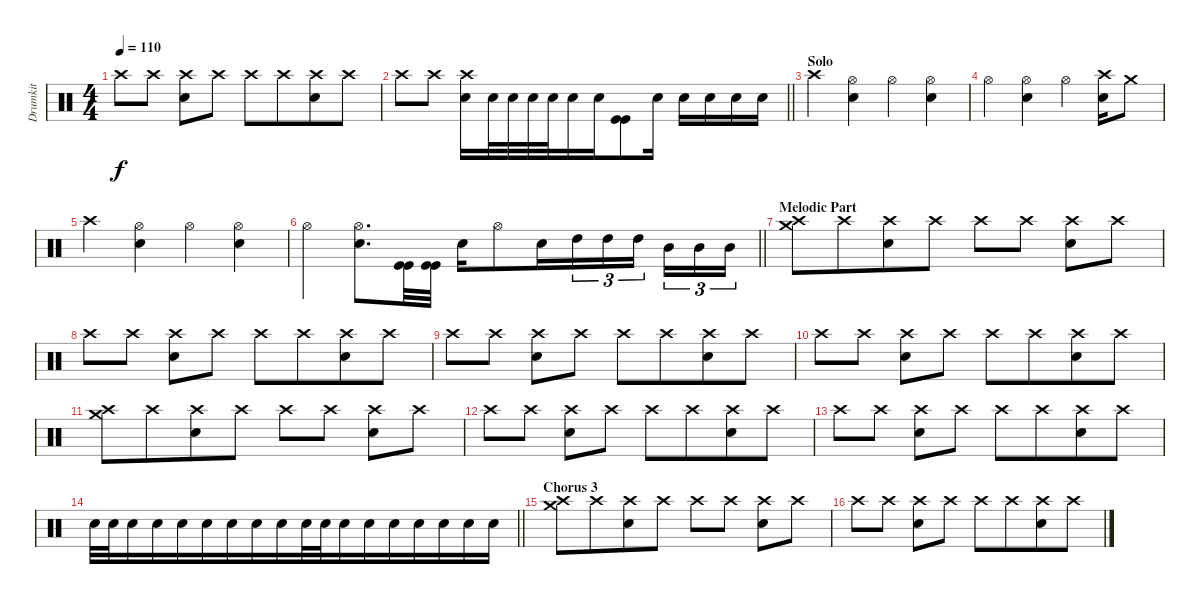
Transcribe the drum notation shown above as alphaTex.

\track ("Drumkit" "Drumkit") {instrument percussion}
\staff {score}
\articulation defaults
\ts (4 4)
\tempo 110
\clef neutral
\ks c "Crash high (hit)".8{dy f} "Crash high (hit)".8
("Crash high (hit)" "Electric Snare (hit)").8{beam merge} "Crash high (hit)".8 "Crash high (hit)".8{beam merge} "Crash high (hit)".8{beam merge} ("Crash high (hit)" "Electric Snare (hit)").8 "Crash high (hit)".8 |
\barLineRight lightlight "Crash high (hit)".8 "Crash high (hit)".8
("Crash high (hit)" "Electric Snare (hit)").16{beam merge} "Electric Snare (hit)".32 "Electric Snare (hit)".32 "Electric Snare (hit)".32{beam merge} "Electric Snare (hit)".32{beam merge} "Electric Snare (hit)".16{beam merge} "Electric Snare (hit)".16 ("Kick (hit)" "Kick (hit)").8{beam merge} "Electric Snare (hit)".16 "Electric Snare (hit)".16 "Electric Snare (hit)".16{beam merge} "Electric Snare (hit)".16{beam merge} "Electric Snare (hit)".16 |
\section ("" "Solo")
"Crash high (hit)".4{beam merge} ("Hi-Hat (open)" "Electric Snare (hit)").4 "Hi-Hat (open)".4{beam merge} ("Hi-Hat (open)" "Electric Snare (hit)").4 |
"Hi-Hat (open)".4{beam merge} ("Hi-Hat (open)" "Electric Snare (hit)").4 "Hi-Hat (open)".4 ("Crash high (hit)" "Electric Snare (hit)").16 "Crash medium (hit)".8 |
"Crash high (hit)".4 ("Hi-Hat (open)" "Electric Snare (hit)").4 "Hi-Hat (open)".4{beam merge} ("Hi-Hat (open)" "Electric Snare (hit)").4 |
\barLineRight lightlight "Hi-Hat (open)".4{beam merge}
("Hi-Hat (open)" "Electric Snare (hit)").8{d beam merge} ("Kick (hit)" "Kick (hit)").32 ("Kick (hit)" "Kick (hit)").32 "Electric Snare (hit)".16 "Hi-Hat (open)".8 "Electric Snare (hit)".16{beam merge} "High Tom (hit)".16{tu (3 2)} "High Tom (hit)".16{tu (3 2) beam merge} "High Tom (hit)".16{tu (3 2) beam splitsecondary} "Mid Tom (hit)".16{tu (3 2)} "Mid Tom (hit)".16{tu (3 2) beam merge} "Mid Tom (hit)".16{tu (3 2)} |
\section ("" "Melodic Part")
("Crash medium (hit)" "Crash high (hit)").8 "Crash high (hit)".8{beam merge} ("Crash high (hit)" "Electric Snare (hit)").8 "Crash high (hit)".8 "Crash high (hit)".8 "Crash high (hit)".8 ("Crash high (hit)" "Electric Snare (hit)").8 "Crash high (hit)".8 |
"Crash high (hit)".8 "Crash high (hit)".8 ("Crash high (hit)" "Electric Snare (hit)").8{beam merge} "Crash high (hit)".8 "Crash high (hit)".8{beam merge} "Crash high (hit)".8{beam merge} ("Crash high (hit)" "Electric Snare (hit)").8 "Crash high (hit)".8 |
"Crash high (hit)".8 "Crash high (hit)".8 ("Crash high (hit)" "Electric Snare (hit)").8{beam merge} "Crash high (hit)".8 "Crash high (hit)".8{beam merge} "Crash high (hit)".8{beam merge} ("Crash high (hit)" "Electric Snare (hit)").8 "Crash high (hit)".8 |
"Crash high (hit)".8 "Crash high (hit)".8 ("Crash high (hit)" "Electric Snare (hit)").8{beam merge} "Crash high (hit)".8 "Crash high (hit)".8{beam merge} "Crash high (hit)".8{beam merge} ("Crash high (hit)" "Electric Snare (hit)").8 "Crash high (hit)".8 |
("Crash medium (hit)" "Crash high (hit)").8 "Crash high (hit)".8{beam merge} ("Crash high (hit)" "Electric Snare (hit)").8 "Crash high (hit)".8 "Crash high (hit)".8 "Crash high (hit)".8 ("Crash high (hit)" "Electric Snare (hit)").8 "Crash high (hit)".8 |
"Crash high (hit)".8 "Crash high (hit)".8 ("Crash high (hit)" "Electric Snare (hit)").8{beam merge} "Crash high (hit)".8 "Crash high (hit)".8{beam merge} "Crash high (hit)".8{beam merge} ("Crash high (hit)" "Electric Snare (hit)").8 "Crash high (hit)".8 |
"Crash high (hit)".8 "Crash high (hit)".8 ("Crash high (hit)" "Electric Snare (hit)").8{beam merge} "Crash high (hit)".8 "Crash high (hit)".8{beam merge} "Crash high (hit)".8{beam merge} ("Crash high (hit)" "Electric Snare (hit)").8 "Crash high (hit)".8 |
\barLineRight lightlight "Electric Snare (hit)".32 "Electric Snare (hit)".32 "Electric Snare (hit)".16{beam merge} "Electric Snare (hit)".16 "Electric Snare (hit)".16{beam merge} "Electric Snare (hit)".16{beam merge} "Electric Snare (hit)".16 "Electric Snare (hit)".16{beam merge} "Electric Snare (hit)".16{beam merge} "Electric Snare (hit)".32 "Electric Snare (hit)".32 "Electric Snare (hit)".16 "Electric Snare (hit)".16{beam merge} "Electric Snare (hit)".16{beam merge} "Electric Snare (hit)".16 "Electric Snare (hit)".16 "Electric Snare (hit)".16 "Electric Snare (hit)".16
|
\section ("" "Chorus 3")
("Crash medium (hit)" "Crash high (hit)").8 "Crash high (hit)".8{beam merge} ("Crash high (hit)" "Electric Snare (hit)").8 "Crash high (hit)".8 "Crash high (hit)".8 "Crash high (hit)".8 ("Crash high (hit)" "Electric Snare (hit)").8 "Crash high (hit)".8 |
"Crash high (hit)".8 "Crash high (hit)".8 ("Crash high (hit)" "Electric Snare (hit)").8{beam merge} "Crash high (hit)".8 "Crash high (hit)".8{beam merge} "Crash high (hit)".8{beam merge} ("Crash high (hit)" "Electric Snare (hit)").8 "Crash high (hit)".8
